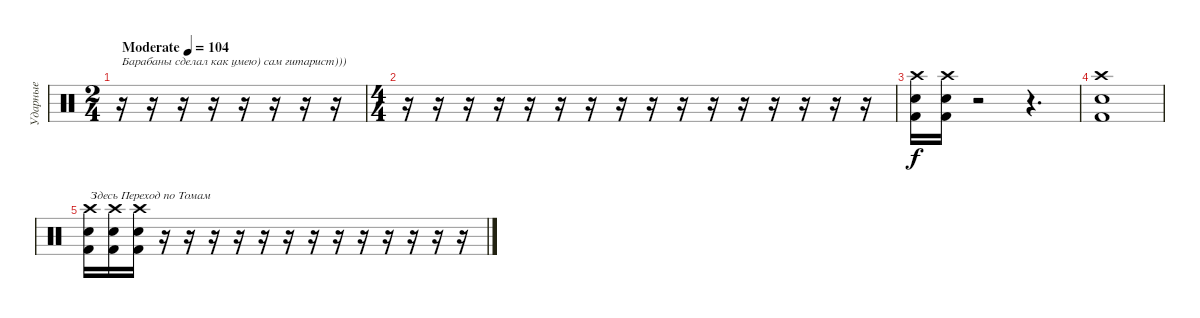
\track ("Ударные" "Ударные") {instrument percussion}
\staff {score}
\articulation defaults
\ts (2 4)
\tempo (104 "Moderate")
\clef neutral
\ks c
r.16{txt "Барабаны сделал как умею) сам гитарист)))" dy f} r.16 r.16 r.16 r.16 r.16 r.16 r.16 |
\ts (4 4)
r.16 r.16 r.16 r.16 r.16 r.16 r.16 r.16 r.16 r.16 r.16 r.16 r.16 r.16 r.16 r.16 |
("Crash high (hit)" "Electric Snare (hit)" "Kick (hit) 2").16 ("Crash high (hit)" "Electric Snare (hit)" "Kick (hit) 2").16 r.2 r.4{d} |
("Crash high (hit)" "Electric Snare (hit)" "Kick (hit) 2").1 |
("Crash high (hit)" "Electric Snare (hit)" "Kick (hit) 2").16{txt "Здесь Переход по Томам"} ("Crash high (hit)" "Electric Snare (hit)" "Kick (hit) 2").16 ("Crash high (hit)" "Electric Snare (hit)" "Kick (hit) 2").16 r.16 r.16 r.16 r.16 r.16 r.16 r.16 r.16 r.16 r.16 r.16 r.16 r.16
